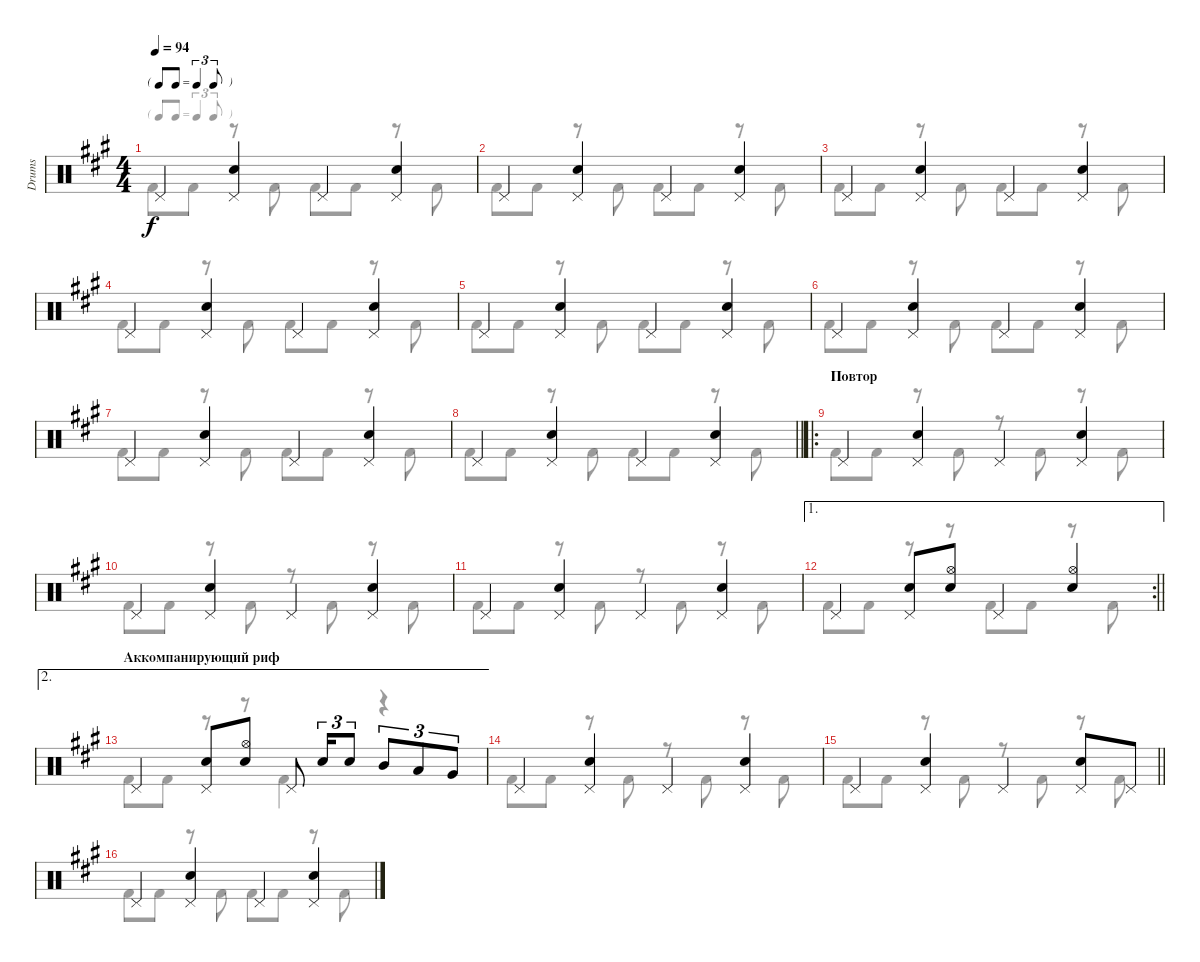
\track ("Drums" "Drums") {instrument percussion}
\staff {score}
\articulation defaults
\voice
\ts (4 4)
\tf triplet8th
\tempo 94
\clef neutral
\ks f#minor "Pedal Hi-Hat (hit)".4{dy f}
("Pedal Hi-Hat (hit)" "Snare (hit) 2").4 "Pedal Hi-Hat (hit)".4 ("Pedal Hi-Hat (hit)" "Snare (hit) 2").4 |
"Pedal Hi-Hat (hit)".4 ("Pedal Hi-Hat (hit)" "Snare (hit) 2").4 "Pedal Hi-Hat (hit)".4 ("Pedal Hi-Hat (hit)" "Snare (hit) 2").4 |
"Pedal Hi-Hat (hit)".4 ("Pedal Hi-Hat (hit)" "Snare (hit) 2").4 "Pedal Hi-Hat (hit)".4 ("Pedal Hi-Hat (hit)" "Snare (hit) 2").4 |
"Pedal Hi-Hat (hit)".4 ("Pedal Hi-Hat (hit)" "Snare (hit) 2").4 "Pedal Hi-Hat (hit)".4 ("Pedal Hi-Hat (hit)" "Snare (hit) 2").4 |
"Pedal Hi-Hat (hit)".4 ("Pedal Hi-Hat (hit)" "Snare (hit) 2").4 "Pedal Hi-Hat (hit)".4 ("Pedal Hi-Hat (hit)" "Snare (hit) 2").4 |
"Pedal Hi-Hat (hit)".4 ("Pedal Hi-Hat (hit)" "Snare (hit) 2").4 "Pedal Hi-Hat (hit)".4 ("Pedal Hi-Hat (hit)" "Snare (hit) 2").4 |
"Pedal Hi-Hat (hit)".4 ("Pedal Hi-Hat (hit)" "Snare (hit) 2").4 "Pedal Hi-Hat (hit)".4 ("Pedal Hi-Hat (hit)" "Snare (hit) 2").4 |
\barLineRight lightlight "Pedal Hi-Hat (hit)".4
("Pedal Hi-Hat (hit)" "Snare (hit) 2").4 "Pedal Hi-Hat (hit)".4 ("Pedal Hi-Hat (hit)" "Snare (hit) 2").4 |
\ro
\section ("" "Повтор")
"Pedal Hi-Hat (hit)".4 ("Pedal Hi-Hat (hit)" "Snare (hit) 2").4 "Pedal Hi-Hat (hit)".4 ("Pedal Hi-Hat (hit)" "Snare (hit) 2").4 |
"Pedal Hi-Hat (hit)".4 ("Pedal Hi-Hat (hit)" "Snare (hit) 2").4 "Pedal Hi-Hat (hit)".4 ("Pedal Hi-Hat (hit)" "Snare (hit) 2").4 |
"Pedal Hi-Hat (hit)".4 ("Pedal Hi-Hat (hit)" "Snare (hit) 2").4 "Pedal Hi-Hat (hit)".4 ("Pedal Hi-Hat (hit)" "Snare (hit) 2").4 |
\ae 1
\rc 2
\barLineRight lightlight "Pedal Hi-Hat (hit)".4
("Pedal Hi-Hat (hit)" "Snare (hit) 2").8 ("Hi-Hat (open)" "Snare (hit) 2").8 "Pedal Hi-Hat (hit)".4 ("Hi-Hat (open)" "Snare (hit) 2").4 |
\ae 2
\section ("" "Аккомпанирующий риф")
"Pedal Hi-Hat (hit)".4 ("Pedal Hi-Hat (hit)" "Snare (hit) 2").8 ("Hi-Hat (open)" "Snare (hit) 2").8 "Pedal Hi-Hat (hit)".8 "Snare (hit) 2".16{tu (3 2)} "Snare (hit) 2".8{tu (3 2)} "Mid Tom (hit)".8{tu (3 2)} "Low Tom (hit)".8{tu (3 2)} "Very Low Tom (hit)".8{tu (3 2)} |
"Pedal Hi-Hat (hit)".4 ("Pedal Hi-Hat (hit)" "Snare (hit) 2").4 "Pedal Hi-Hat (hit)".4 ("Pedal Hi-Hat (hit)" "Snare (hit) 2").4 |
\barLineRight lightlight "Pedal Hi-Hat (hit)".4
("Pedal Hi-Hat (hit)" "Snare (hit) 2").4 "Pedal Hi-Hat (hit)".4 ("Pedal Hi-Hat (hit)" "Snare (hit) 2").8 "Pedal Hi-Hat (hit)".8 |
"Pedal Hi-Hat (hit)".4 ("Pedal Hi-Hat (hit)" "Snare (hit) 2").4 "Pedal Hi-Hat (hit)".4 ("Pedal Hi-Hat (hit)" "Snare (hit) 2").4
\voice
\clef neutral
\ottava regular
\simile none
\ks f#minor "Kick (hit) 2".8{dy f} "Kick (hit) 2".8
r.8 "Kick (hit) 2".8 "Kick (hit) 2".8 "Kick (hit) 2".8 r.8 "Kick (hit) 2".8 |
"Kick (hit) 2".8 "Kick (hit) 2".8 r.8 "Kick (hit) 2".8 "Kick (hit) 2".8 "Kick (hit) 2".8 r.8 "Kick (hit) 2".8 |
"Kick (hit) 2".8 "Kick (hit) 2".8 r.8 "Kick (hit) 2".8 "Kick (hit) 2".8 "Kick (hit) 2".8 r.8 "Kick (hit) 2".8 |
"Kick (hit) 2".8 "Kick (hit) 2".8 r.8 "Kick (hit) 2".8 "Kick (hit) 2".8 "Kick (hit) 2".8 r.8 "Kick (hit) 2".8 |
"Kick (hit) 2".8 "Kick (hit) 2".8 r.8 "Kick (hit) 2".8 "Kick (hit) 2".8 "Kick (hit) 2".8 r.8 "Kick (hit) 2".8 |
"Kick (hit) 2".8 "Kick (hit) 2".8 r.8 "Kick (hit) 2".8 "Kick (hit) 2".8 "Kick (hit) 2".8 r.8 "Kick (hit) 2".8 |
"Kick (hit) 2".8 "Kick (hit) 2".8 r.8 "Kick (hit) 2".8 "Kick (hit) 2".8 "Kick (hit) 2".8 r.8 "Kick (hit) 2".8 |
\barLineRight lightlight "Kick (hit) 2".8 "Kick (hit) 2".8
r.8 "Kick (hit) 2".8 "Kick (hit) 2".8 "Kick (hit) 2".8 r.8 "Kick (hit) 2".8 |
"Kick (hit) 2".8 "Kick (hit) 2".8 r.8 "Kick (hit) 2".8 r.8 "Kick (hit) 2".8 r.8 "Kick (hit) 2".8 |
"Kick (hit) 2".8 "Kick (hit) 2".8 r.8 "Kick (hit) 2".8 r.8 "Kick (hit) 2".8 r.8 "Kick (hit) 2".8 |
"Kick (hit) 2".8 "Kick (hit) 2".8 r.8 "Kick (hit) 2".8 r.8 "Kick (hit) 2".8 r.8 "Kick (hit) 2".8 |
\barLineRight lightlight "Kick (hit) 2".8 "Kick (hit) 2".8
r.8 r.8 "Kick (hit) 2".8 "Kick (hit) 2".8 r.8 "Kick (hit) 2".8 |
"Kick (hit) 2".8 "Kick (hit) 2".8 r.8 r.8 "Kick (hit) 2".4 r.4 |
"Kick (hit) 2".8 "Kick (hit) 2".8 r.8 "Kick (hit) 2".8 r.8 "Kick (hit) 2".8 r.8 "Kick (hit) 2".8 |
\barLineRight lightlight "Kick (hit) 2".8 "Kick (hit) 2".8
r.8 "Kick (hit) 2".8 r.8 "Kick (hit) 2".8 r.8 "Kick (hit) 2".8 |
"Kick (hit) 2".8 "Kick (hit) 2".8 r.8 "Kick (hit) 2".8 "Kick (hit) 2".8 "Kick (hit) 2".8 r.8 "Kick (hit) 2".8
